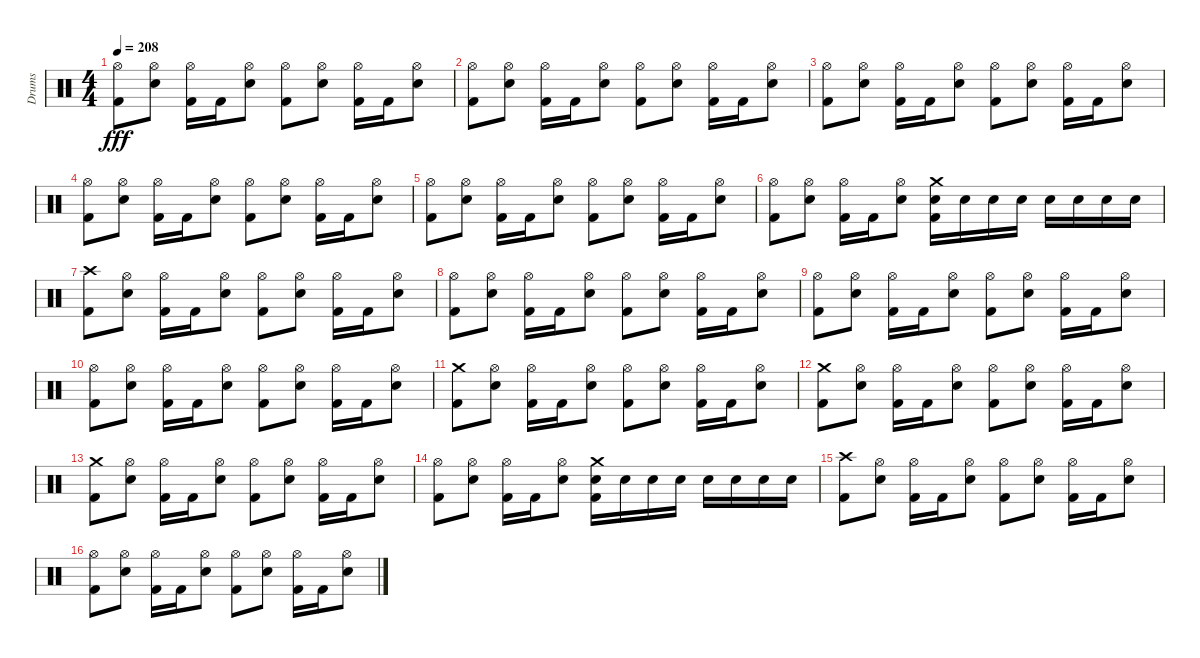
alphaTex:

\track ("Drums" "Drums") {instrument percussion}
\staff {score}
\articulation defaults
\ts (4 4)
\tempo 208
\clef neutral
\ks c
("Hi-Hat (open)" "Kick (hit) 2").8{dy fff} ("Electric Snare (hit)" "Hi-Hat (open)").8 ("Hi-Hat (open)" "Kick (hit) 2").16 "Kick (hit) 2".16 ("Electric Snare (hit)" "Hi-Hat (open)").8 ("Hi-Hat (open)" "Kick (hit) 2").8 ("Electric Snare (hit)" "Hi-Hat (open)").8 ("Hi-Hat (open)" "Kick (hit) 2").16 "Kick (hit) 2".16 ("Electric Snare (hit)" "Hi-Hat (open)").8 |
("Hi-Hat (open)" "Kick (hit) 2").8 ("Electric Snare (hit)" "Hi-Hat (open)").8 ("Hi-Hat (open)" "Kick (hit) 2").16 "Kick (hit) 2".16 ("Electric Snare (hit)" "Hi-Hat (open)").8 ("Hi-Hat (open)" "Kick (hit) 2").8 ("Electric Snare (hit)" "Hi-Hat (open)").8 ("Hi-Hat (open)" "Kick (hit) 2").16 "Kick (hit) 2".16 ("Electric Snare (hit)" "Hi-Hat (open)").8 |
("Hi-Hat (open)" "Kick (hit) 2").8 ("Electric Snare (hit)" "Hi-Hat (open)").8 ("Hi-Hat (open)" "Kick (hit) 2").16 "Kick (hit) 2".16 ("Electric Snare (hit)" "Hi-Hat (open)").8 ("Hi-Hat (open)" "Kick (hit) 2").8 ("Electric Snare (hit)" "Hi-Hat (open)").8 ("Hi-Hat (open)" "Kick (hit) 2").16 "Kick (hit) 2".16 ("Electric Snare (hit)" "Hi-Hat (open)").8 |
("Hi-Hat (open)" "Kick (hit) 2").8 ("Electric Snare (hit)" "Hi-Hat (open)").8 ("Hi-Hat (open)" "Kick (hit) 2").16 "Kick (hit) 2".16 ("Electric Snare (hit)" "Hi-Hat (open)").8 ("Hi-Hat (open)" "Kick (hit) 2").8 ("Electric Snare (hit)" "Hi-Hat (open)").8 ("Hi-Hat (open)" "Kick (hit) 2").16 "Kick (hit) 2".16 ("Electric Snare (hit)" "Hi-Hat (open)").8 |
("Hi-Hat (open)" "Kick (hit) 2").8 ("Electric Snare (hit)" "Hi-Hat (open)").8 ("Hi-Hat (open)" "Kick (hit) 2").16 "Kick (hit) 2".16 ("Electric Snare (hit)" "Hi-Hat (open)").8 ("Hi-Hat (open)" "Kick (hit) 2").8 ("Electric Snare (hit)" "Hi-Hat (open)").8 ("Hi-Hat (open)" "Kick (hit) 2").16 "Kick (hit) 2".16 ("Electric Snare (hit)" "Hi-Hat (open)").8 |
("Hi-Hat (open)" "Kick (hit) 2").8 ("Electric Snare (hit)" "Hi-Hat (open)").8 ("Hi-Hat (open)" "Kick (hit) 2").16 "Kick (hit) 2".16 ("Electric Snare (hit)" "Hi-Hat (open)").8 ("Kick (hit) 2" "Electric Snare (hit)" "Crash medium (hit)").16 "Electric Snare (hit)".16 "Electric Snare (hit)".16 "Electric Snare (hit)".16 "Electric Snare (hit)".16 "Electric Snare (hit)".16 "Electric Snare (hit)".16 "Electric Snare (hit)".16 |
("Kick (hit) 2" "Crash high (hit)").8 ("Electric Snare (hit)" "Hi-Hat (open)").8 ("Hi-Hat (open)" "Kick (hit) 2").16 "Kick (hit) 2".16 ("Electric Snare (hit)" "Hi-Hat (open)").8 ("Hi-Hat (open)" "Kick (hit) 2").8 ("Electric Snare (hit)" "Hi-Hat (open)").8 ("Hi-Hat (open)" "Kick (hit) 2").16 "Kick (hit) 2".16 ("Electric Snare (hit)" "Hi-Hat (open)").8 |
("Hi-Hat (open)" "Kick (hit) 2").8 ("Electric Snare (hit)" "Hi-Hat (open)").8 ("Hi-Hat (open)" "Kick (hit) 2").16 "Kick (hit) 2".16 ("Electric Snare (hit)" "Hi-Hat (open)").8 ("Hi-Hat (open)" "Kick (hit) 2").8 ("Electric Snare (hit)" "Hi-Hat (open)").8 ("Hi-Hat (open)" "Kick (hit) 2").16 "Kick (hit) 2".16 ("Electric Snare (hit)" "Hi-Hat (open)").8 |
("Hi-Hat (open)" "Kick (hit) 2").8 ("Electric Snare (hit)" "Hi-Hat (open)").8 ("Hi-Hat (open)" "Kick (hit) 2").16 "Kick (hit) 2".16 ("Electric Snare (hit)" "Hi-Hat (open)").8 ("Hi-Hat (open)" "Kick (hit) 2").8 ("Electric Snare (hit)" "Hi-Hat (open)").8 ("Hi-Hat (open)" "Kick (hit) 2").16 "Kick (hit) 2".16 ("Electric Snare (hit)" "Hi-Hat (open)").8 |
("Hi-Hat (open)" "Kick (hit) 2").8 ("Electric Snare (hit)" "Hi-Hat (open)").8 ("Hi-Hat (open)" "Kick (hit) 2").16 "Kick (hit) 2".16 ("Electric Snare (hit)" "Hi-Hat (open)").8 ("Hi-Hat (open)" "Kick (hit) 2").8 ("Electric Snare (hit)" "Hi-Hat (open)").8 ("Hi-Hat (open)" "Kick (hit) 2").16 "Kick (hit) 2".16 ("Electric Snare (hit)" "Hi-Hat (open)").8 |
("Kick (hit) 2" "Crash medium (hit)").8 ("Electric Snare (hit)" "Hi-Hat (open)").8 ("Hi-Hat (open)" "Kick (hit) 2").16 "Kick (hit) 2".16 ("Electric Snare (hit)" "Hi-Hat (open)").8 ("Hi-Hat (open)" "Kick (hit) 2").8 ("Electric Snare (hit)" "Hi-Hat (open)").8 ("Hi-Hat (open)" "Kick (hit) 2").16 "Kick (hit) 2".16 ("Electric Snare (hit)" "Hi-Hat (open)").8 |
("Kick (hit) 2" "Crash medium (hit)").8 ("Electric Snare (hit)" "Hi-Hat (open)").8 ("Hi-Hat (open)" "Kick (hit) 2").16 "Kick (hit) 2".16 ("Electric Snare (hit)" "Hi-Hat (open)").8 ("Hi-Hat (open)" "Kick (hit) 2").8 ("Electric Snare (hit)" "Hi-Hat (open)").8 ("Hi-Hat (open)" "Kick (hit) 2").16 "Kick (hit) 2".16 ("Electric Snare (hit)" "Hi-Hat (open)").8 |
("Kick (hit) 2" "Crash medium (hit)").8 ("Electric Snare (hit)" "Hi-Hat (open)").8 ("Hi-Hat (open)" "Kick (hit) 2").16 "Kick (hit) 2".16 ("Electric Snare (hit)" "Hi-Hat (open)").8 ("Hi-Hat (open)" "Kick (hit) 2").8 ("Electric Snare (hit)" "Hi-Hat (open)").8 ("Hi-Hat (open)" "Kick (hit) 2").16 "Kick (hit) 2".16 ("Electric Snare (hit)" "Hi-Hat (open)").8 |
("Hi-Hat (open)" "Kick (hit) 2").8 ("Electric Snare (hit)" "Hi-Hat (open)").8 ("Hi-Hat (open)" "Kick (hit) 2").16 "Kick (hit) 2".16 ("Electric Snare (hit)" "Hi-Hat (open)").8 ("Kick (hit) 2" "Electric Snare (hit)" "Crash medium (hit)").16 "Electric Snare (hit)".16 "Electric Snare (hit)".16 "Electric Snare (hit)".16 "Electric Snare (hit)".16 "Electric Snare (hit)".16 "Electric Snare (hit)".16 "Electric Snare (hit)".16 |
("Kick (hit) 2" "Crash high (hit)").8 ("Electric Snare (hit)" "Hi-Hat (open)").8 ("Hi-Hat (open)" "Kick (hit) 2").16 "Kick (hit) 2".16 ("Electric Snare (hit)" "Hi-Hat (open)").8 ("Hi-Hat (open)" "Kick (hit) 2").8 ("Electric Snare (hit)" "Hi-Hat (open)").8 ("Hi-Hat (open)" "Kick (hit) 2").16 "Kick (hit) 2".16 ("Electric Snare (hit)" "Hi-Hat (open)").8 |
("Hi-Hat (open)" "Kick (hit) 2").8 ("Electric Snare (hit)" "Hi-Hat (open)").8 ("Hi-Hat (open)" "Kick (hit) 2").16 "Kick (hit) 2".16 ("Electric Snare (hit)" "Hi-Hat (open)").8 ("Hi-Hat (open)" "Kick (hit) 2").8 ("Electric Snare (hit)" "Hi-Hat (open)").8 ("Hi-Hat (open)" "Kick (hit) 2").16 "Kick (hit) 2".16 ("Electric Snare (hit)" "Hi-Hat (open)").8
